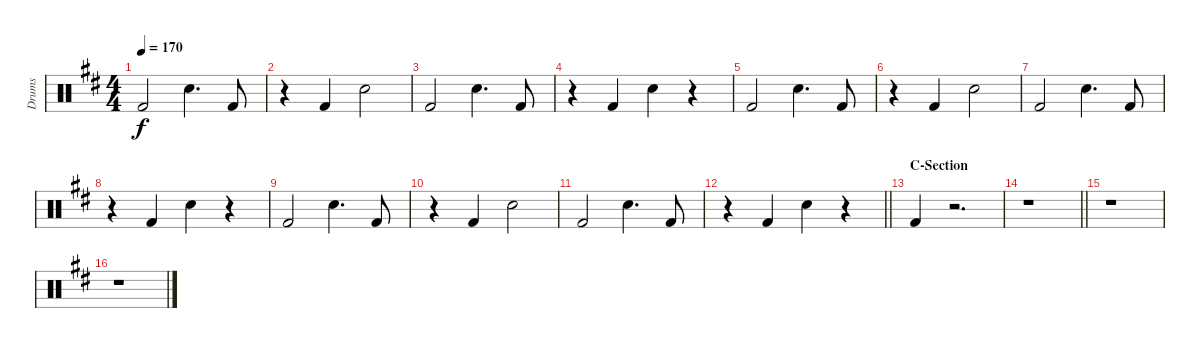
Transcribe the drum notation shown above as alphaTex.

\track ("Drums" "Drums") {instrument percussion}
\staff {score}
\articulation defaults
\ts (4 4)
\tempo 170
\clef neutral
\ks d "Kick (hit) 2".2{dy f} "Electric Snare (hit)".4{d} "Kick (hit) 2".8
|
r.4 "Kick (hit) 2".4 "Electric Snare (hit)".2 |
"Kick (hit) 2".2 "Electric Snare (hit)".4{d} "Kick (hit) 2".8 |
r.4 "Kick (hit) 2".4 "Electric Snare (hit)".4 r.4 |
"Kick (hit) 2".2 "Electric Snare (hit)".4{d} "Kick (hit) 2".8 |
r.4 "Kick (hit) 2".4 "Electric Snare (hit)".2 |
"Kick (hit) 2".2 "Electric Snare (hit)".4{d} "Kick (hit) 2".8 |
r.4 "Kick (hit) 2".4 "Electric Snare (hit)".4 r.4 |
"Kick (hit) 2".2 "Electric Snare (hit)".4{d} "Kick (hit) 2".8 |
r.4 "Kick (hit) 2".4 "Electric Snare (hit)".2 |
"Kick (hit) 2".2 "Electric Snare (hit)".4{d} "Kick (hit) 2".8 |
\barLineRight lightlight
r.4 "Kick (hit) 2".4 "Electric Snare (hit)".4 r.4 |
\section ("" "C-Section")
"Kick (hit) 2".4 r.2{d} |
\barLineRight lightlight
r.1 |
r.1 |
r.1
